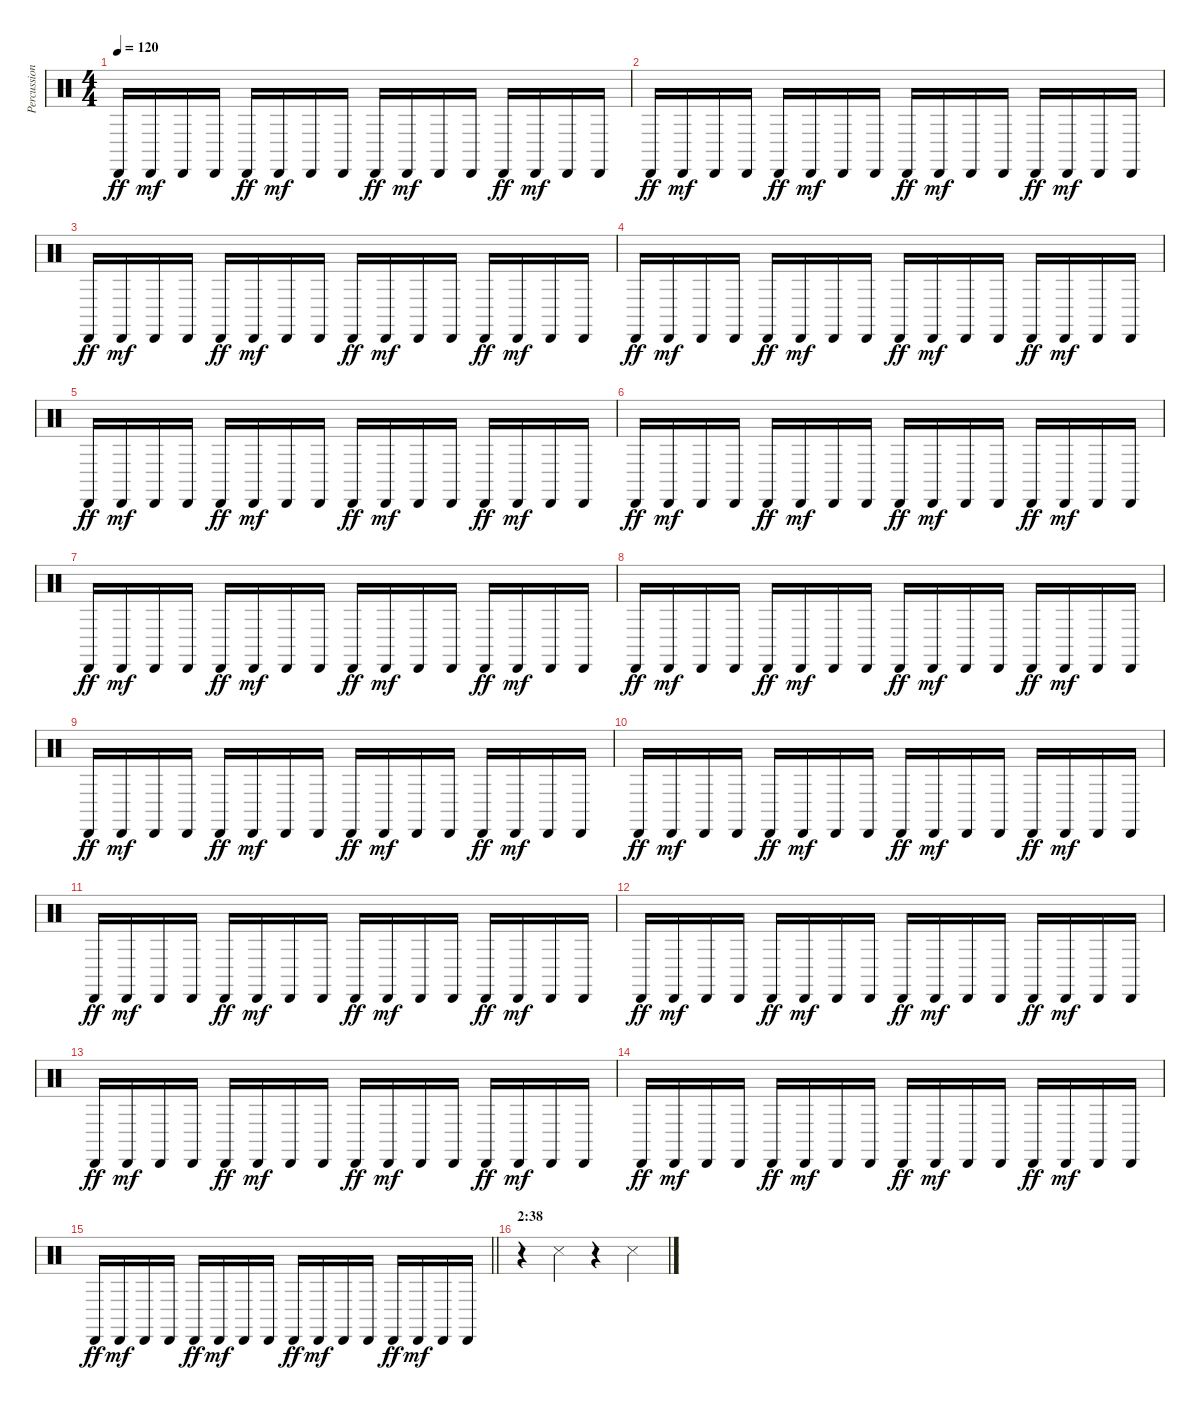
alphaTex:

\track ("Percussion" "Percussion") {instrument percussion}
\staff {score}
\articulation defaults
\ts (4 4)
\tempo 120
\clef neutral
\ks c "Cabasa (hit)".16{dy ff} "Cabasa (hit)".16{dy mf} "Cabasa (hit)".16 "Cabasa (hit)".16 "Cabasa (hit)".16{dy ff} "Cabasa (hit)".16{dy mf} "Cabasa (hit)".16 "Cabasa (hit)".16 "Cabasa (hit)".16{dy ff} "Cabasa (hit)".16{dy mf} "Cabasa (hit)".16 "Cabasa (hit)".16 "Cabasa (hit)".16{dy ff} "Cabasa (hit)".16{dy mf} "Cabasa (hit)".16 "Cabasa (hit)".16
|
"Cabasa (hit)".16{dy ff} "Cabasa (hit)".16{dy mf} "Cabasa (hit)".16 "Cabasa (hit)".16 "Cabasa (hit)".16{dy ff} "Cabasa (hit)".16{dy mf} "Cabasa (hit)".16 "Cabasa (hit)".16 "Cabasa (hit)".16{dy ff} "Cabasa (hit)".16{dy mf} "Cabasa (hit)".16 "Cabasa (hit)".16 "Cabasa (hit)".16{dy ff} "Cabasa (hit)".16{dy mf} "Cabasa (hit)".16 "Cabasa (hit)".16 |
"Cabasa (hit)".16{dy ff} "Cabasa (hit)".16{dy mf} "Cabasa (hit)".16 "Cabasa (hit)".16 "Cabasa (hit)".16{dy ff} "Cabasa (hit)".16{dy mf} "Cabasa (hit)".16 "Cabasa (hit)".16 "Cabasa (hit)".16{dy ff} "Cabasa (hit)".16{dy mf} "Cabasa (hit)".16 "Cabasa (hit)".16 "Cabasa (hit)".16{dy ff} "Cabasa (hit)".16{dy mf} "Cabasa (hit)".16 "Cabasa (hit)".16 |
"Cabasa (hit)".16{dy ff} "Cabasa (hit)".16{dy mf} "Cabasa (hit)".16 "Cabasa (hit)".16 "Cabasa (hit)".16{dy ff} "Cabasa (hit)".16{dy mf} "Cabasa (hit)".16 "Cabasa (hit)".16 "Cabasa (hit)".16{dy ff} "Cabasa (hit)".16{dy mf} "Cabasa (hit)".16 "Cabasa (hit)".16 "Cabasa (hit)".16{dy ff} "Cabasa (hit)".16{dy mf} "Cabasa (hit)".16 "Cabasa (hit)".16 |
"Cabasa (hit)".16{dy ff} "Cabasa (hit)".16{dy mf} "Cabasa (hit)".16 "Cabasa (hit)".16 "Cabasa (hit)".16{dy ff} "Cabasa (hit)".16{dy mf} "Cabasa (hit)".16 "Cabasa (hit)".16 "Cabasa (hit)".16{dy ff} "Cabasa (hit)".16{dy mf} "Cabasa (hit)".16 "Cabasa (hit)".16 "Cabasa (hit)".16{dy ff} "Cabasa (hit)".16{dy mf} "Cabasa (hit)".16 "Cabasa (hit)".16 |
"Cabasa (hit)".16{dy ff} "Cabasa (hit)".16{dy mf} "Cabasa (hit)".16 "Cabasa (hit)".16 "Cabasa (hit)".16{dy ff} "Cabasa (hit)".16{dy mf} "Cabasa (hit)".16 "Cabasa (hit)".16 "Cabasa (hit)".16{dy ff} "Cabasa (hit)".16{dy mf} "Cabasa (hit)".16 "Cabasa (hit)".16 "Cabasa (hit)".16{dy ff} "Cabasa (hit)".16{dy mf} "Cabasa (hit)".16 "Cabasa (hit)".16 |
"Cabasa (hit)".16{dy ff} "Cabasa (hit)".16{dy mf} "Cabasa (hit)".16 "Cabasa (hit)".16 "Cabasa (hit)".16{dy ff} "Cabasa (hit)".16{dy mf} "Cabasa (hit)".16 "Cabasa (hit)".16 "Cabasa (hit)".16{dy ff} "Cabasa (hit)".16{dy mf} "Cabasa (hit)".16 "Cabasa (hit)".16 "Cabasa (hit)".16{dy ff} "Cabasa (hit)".16{dy mf} "Cabasa (hit)".16 "Cabasa (hit)".16 |
"Cabasa (hit)".16{dy ff} "Cabasa (hit)".16{dy mf} "Cabasa (hit)".16 "Cabasa (hit)".16 "Cabasa (hit)".16{dy ff} "Cabasa (hit)".16{dy mf} "Cabasa (hit)".16 "Cabasa (hit)".16 "Cabasa (hit)".16{dy ff} "Cabasa (hit)".16{dy mf} "Cabasa (hit)".16 "Cabasa (hit)".16 "Cabasa (hit)".16{dy ff} "Cabasa (hit)".16{dy mf} "Cabasa (hit)".16 "Cabasa (hit)".16 |
"Cabasa (hit)".16{dy ff} "Cabasa (hit)".16{dy mf} "Cabasa (hit)".16 "Cabasa (hit)".16 "Cabasa (hit)".16{dy ff} "Cabasa (hit)".16{dy mf} "Cabasa (hit)".16 "Cabasa (hit)".16 "Cabasa (hit)".16{dy ff} "Cabasa (hit)".16{dy mf} "Cabasa (hit)".16 "Cabasa (hit)".16 "Cabasa (hit)".16{dy ff} "Cabasa (hit)".16{dy mf} "Cabasa (hit)".16 "Cabasa (hit)".16 |
"Cabasa (hit)".16{dy ff} "Cabasa (hit)".16{dy mf} "Cabasa (hit)".16 "Cabasa (hit)".16 "Cabasa (hit)".16{dy ff} "Cabasa (hit)".16{dy mf} "Cabasa (hit)".16 "Cabasa (hit)".16 "Cabasa (hit)".16{dy ff} "Cabasa (hit)".16{dy mf} "Cabasa (hit)".16 "Cabasa (hit)".16 "Cabasa (hit)".16{dy ff} "Cabasa (hit)".16{dy mf} "Cabasa (hit)".16 "Cabasa (hit)".16 |
"Cabasa (hit)".16{dy ff} "Cabasa (hit)".16{dy mf} "Cabasa (hit)".16 "Cabasa (hit)".16 "Cabasa (hit)".16{dy ff} "Cabasa (hit)".16{dy mf} "Cabasa (hit)".16 "Cabasa (hit)".16 "Cabasa (hit)".16{dy ff} "Cabasa (hit)".16{dy mf} "Cabasa (hit)".16 "Cabasa (hit)".16 "Cabasa (hit)".16{dy ff} "Cabasa (hit)".16{dy mf} "Cabasa (hit)".16 "Cabasa (hit)".16 |
"Cabasa (hit)".16{dy ff} "Cabasa (hit)".16{dy mf} "Cabasa (hit)".16 "Cabasa (hit)".16 "Cabasa (hit)".16{dy ff} "Cabasa (hit)".16{dy mf} "Cabasa (hit)".16 "Cabasa (hit)".16 "Cabasa (hit)".16{dy ff} "Cabasa (hit)".16{dy mf} "Cabasa (hit)".16 "Cabasa (hit)".16 "Cabasa (hit)".16{dy ff} "Cabasa (hit)".16{dy mf} "Cabasa (hit)".16 "Cabasa (hit)".16 |
"Cabasa (hit)".16{dy ff} "Cabasa (hit)".16{dy mf} "Cabasa (hit)".16 "Cabasa (hit)".16 "Cabasa (hit)".16{dy ff} "Cabasa (hit)".16{dy mf} "Cabasa (hit)".16 "Cabasa (hit)".16 "Cabasa (hit)".16{dy ff} "Cabasa (hit)".16{dy mf} "Cabasa (hit)".16 "Cabasa (hit)".16 "Cabasa (hit)".16{dy ff} "Cabasa (hit)".16{dy mf} "Cabasa (hit)".16 "Cabasa (hit)".16 |
"Cabasa (hit)".16{dy ff} "Cabasa (hit)".16{dy mf} "Cabasa (hit)".16 "Cabasa (hit)".16 "Cabasa (hit)".16{dy ff} "Cabasa (hit)".16{dy mf} "Cabasa (hit)".16 "Cabasa (hit)".16 "Cabasa (hit)".16{dy ff} "Cabasa (hit)".16{dy mf} "Cabasa (hit)".16 "Cabasa (hit)".16 "Cabasa (hit)".16{dy ff} "Cabasa (hit)".16{dy mf} "Cabasa (hit)".16 "Cabasa (hit)".16 |
\barLineRight lightlight "Cabasa (hit)".16{dy ff} "Cabasa (hit)".16{dy mf} "Cabasa (hit)".16 "Cabasa (hit)".16 "Cabasa (hit)".16{dy ff} "Cabasa (hit)".16{dy mf} "Cabasa (hit)".16 "Cabasa (hit)".16 "Cabasa (hit)".16{dy ff} "Cabasa (hit)".16{dy mf} "Cabasa (hit)".16 "Cabasa (hit)".16 "Cabasa (hit)".16{dy ff} "Cabasa (hit)".16{dy mf} "Cabasa (hit)".16 "Cabasa (hit)".16
|
\section ("" "2:38")
r.4 "Snare (side stick) 3".4 r.4 "Snare (side stick) 3".4
